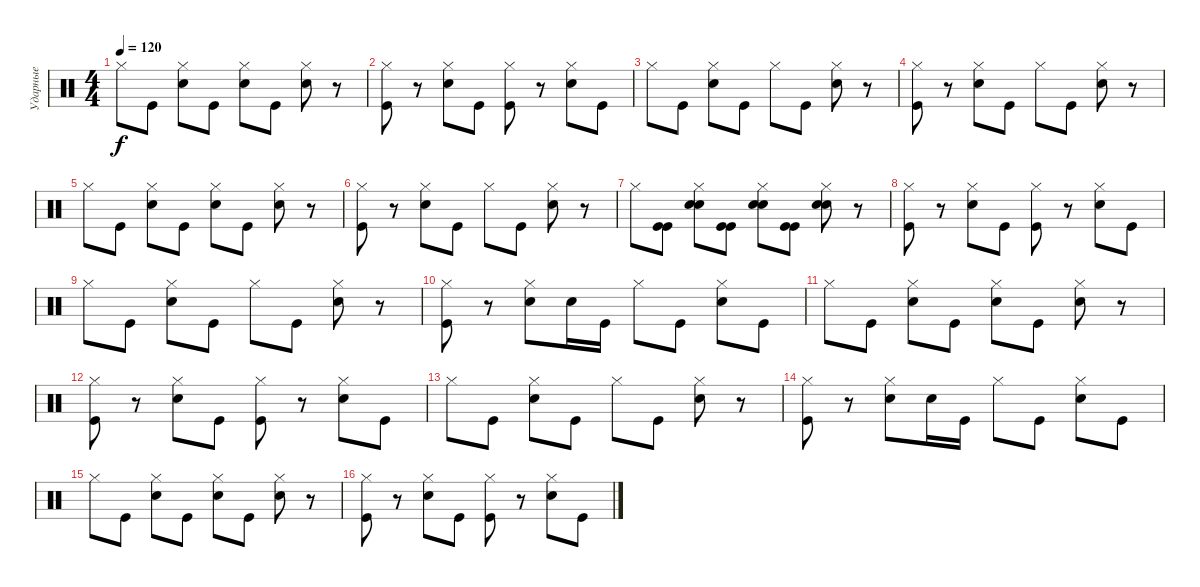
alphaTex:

\track ("Ударные" "Ударные") {instrument percussion}
\staff {score}
\articulation defaults
\ts (4 4)
\tempo 120
\clef neutral
\ks c "Hi-Hat (closed)".8{dy f} "Kick (hit)".8
("Hi-Hat (closed)" "Snare (hit) 2").8 "Kick (hit)".8 ("Hi-Hat (closed)" "Snare (hit) 2").8 "Kick (hit)".8 ("Hi-Hat (closed)" "Snare (hit) 2").8 r.8 |
("Hi-Hat (closed)" "Kick (hit)").8 r.8 ("Hi-Hat (closed)" "Snare (hit) 2").8 "Kick (hit)".8 ("Hi-Hat (closed)" "Kick (hit)").8 r.8 ("Hi-Hat (closed)" "Snare (hit) 2").8 "Kick (hit)".8 |
"Hi-Hat (closed)".8 "Kick (hit)".8 ("Hi-Hat (closed)" "Snare (hit) 2").8 "Kick (hit)".8 "Hi-Hat (closed)".8 "Kick (hit)".8 ("Hi-Hat (closed)" "Snare (hit) 2").8 r.8 |
("Hi-Hat (closed)" "Kick (hit)").8 r.8 ("Hi-Hat (closed)" "Snare (hit) 2").8 "Kick (hit)".8 "Hi-Hat (closed)".8 "Kick (hit)".8 ("Hi-Hat (closed)" "Snare (hit) 2").8 r.8 |
"Hi-Hat (closed)".8 "Kick (hit)".8 ("Hi-Hat (closed)" "Snare (hit) 2").8 "Kick (hit)".8 ("Hi-Hat (closed)" "Snare (hit) 2").8 "Kick (hit)".8 ("Hi-Hat (closed)" "Snare (hit) 2").8 r.8 |
("Hi-Hat (closed)" "Kick (hit)").8 r.8 ("Hi-Hat (closed)" "Snare (hit) 2").8 "Kick (hit)".8 "Hi-Hat (closed)".8 "Kick (hit)".8 ("Hi-Hat (closed)" "Snare (hit) 2").8 r.8 |
"Hi-Hat (closed)".8 ("Kick (hit)" "Kick (hit)").8 ("Hi-Hat (closed)" "Snare (hit) 2" "Snare (hit) 2").8 ("Kick (hit)" "Kick (hit)").8 ("Hi-Hat (closed)" "Snare (hit) 2" "Snare (hit) 2").8 ("Kick (hit)" "Kick (hit)").8 ("Hi-Hat (closed)" "Snare (hit) 2" "Snare (hit) 2").8 r.8 |
("Hi-Hat (closed)" "Kick (hit)").8 r.8 ("Hi-Hat (closed)" "Snare (hit) 2").8 "Kick (hit)".8 ("Hi-Hat (closed)" "Kick (hit)").8 r.8 ("Hi-Hat (closed)" "Snare (hit) 2").8 "Kick (hit)".8 |
"Hi-Hat (closed)".8 "Kick (hit)".8 ("Hi-Hat (closed)" "Snare (hit) 2").8 "Kick (hit)".8 "Hi-Hat (closed)".8 "Kick (hit)".8 ("Hi-Hat (closed)" "Snare (hit) 2").8 r.8 |
("Hi-Hat (closed)" "Kick (hit)").8 r.8 ("Hi-Hat (closed)" "Snare (hit) 2").8 "Snare (hit) 2".16 "Kick (hit)".16 "Hi-Hat (closed)".8 "Kick (hit)".8 ("Hi-Hat (closed)" "Snare (hit) 2").8 "Kick (hit)".8 |
"Hi-Hat (closed)".8 "Kick (hit)".8 ("Hi-Hat (closed)" "Snare (hit) 2").8 "Kick (hit)".8 ("Hi-Hat (closed)" "Snare (hit) 2").8 "Kick (hit)".8 ("Hi-Hat (closed)" "Snare (hit) 2").8 r.8 |
("Hi-Hat (closed)" "Kick (hit)").8 r.8 ("Hi-Hat (closed)" "Snare (hit) 2").8 "Kick (hit)".8 ("Hi-Hat (closed)" "Kick (hit)").8 r.8 ("Hi-Hat (closed)" "Snare (hit) 2").8 "Kick (hit)".8 |
"Hi-Hat (closed)".8 "Kick (hit)".8 ("Hi-Hat (closed)" "Snare (hit) 2").8 "Kick (hit)".8 "Hi-Hat (closed)".8 "Kick (hit)".8 ("Hi-Hat (closed)" "Snare (hit) 2").8 r.8 |
("Hi-Hat (closed)" "Kick (hit)").8 r.8 ("Hi-Hat (closed)" "Snare (hit) 2").8 "Snare (hit) 2".16 "Kick (hit)".16 "Hi-Hat (closed)".8 "Kick (hit)".8 ("Hi-Hat (closed)" "Snare (hit) 2").8 "Kick (hit)".8 |
"Hi-Hat (closed)".8 "Kick (hit)".8 ("Hi-Hat (closed)" "Snare (hit) 2").8 "Kick (hit)".8 ("Hi-Hat (closed)" "Snare (hit) 2").8 "Kick (hit)".8 ("Hi-Hat (closed)" "Snare (hit) 2").8 r.8 |
("Hi-Hat (closed)" "Kick (hit)").8 r.8 ("Hi-Hat (closed)" "Snare (hit) 2").8 "Kick (hit)".8 ("Hi-Hat (closed)" "Kick (hit)").8 r.8 ("Hi-Hat (closed)" "Snare (hit) 2").8 "Kick (hit)".8
